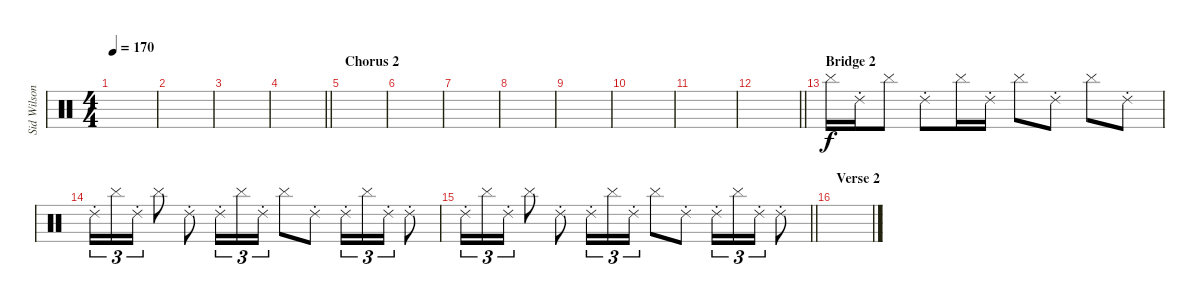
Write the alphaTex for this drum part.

\track ("Sid Wilson" "Sid Wilson") {instrument percussion}
\staff {score}
\articulation defaults
\ts (4 4)
\tempo 170
\clef neutral
\ks c
|
|
|
\barLineRight lightlight
|
\section ("" "Chorus 2")
|
|
|
|
|
|
|
\barLineRight lightlight
|
\section ("" "Bridge 2")
"Cymbal (hit)".16 "Ride (choke) 2".16 "Cymbal (hit)".8 "Ride (choke) 2".8 "Cymbal (hit)".16 "Ride (choke) 2".16 "Cymbal (hit)".8 "Ride (choke) 2".8 "Cymbal (hit)".8 "Ride (choke) 2".8 |
"Ride (choke) 2".16{tu (3 2)} "Cymbal (hit)".16{tu (3 2)} "Ride (choke) 2".16{tu (3 2)} "Cymbal (hit)".8 "Ride (choke) 2".8 "Ride (choke) 2".16{tu (3 2)} "Cymbal (hit)".16{tu (3 2)} "Ride (choke) 2".16{tu (3 2)} "Cymbal (hit)".8 "Ride (choke) 2".8 "Ride (choke) 2".16{tu (3 2)} "Cymbal (hit)".16{tu (3 2)} "Ride (choke) 2".16{tu (3 2)} "Ride (choke) 2".8 |
\barLineRight lightlight "Ride (choke) 2".16{tu (3 2)} "Cymbal (hit)".16{tu (3 2)} "Ride (choke) 2".16{tu (3 2)} "Cymbal (hit)".8 "Ride (choke) 2".8 "Ride (choke) 2".16{tu (3 2)} "Cymbal (hit)".16{tu (3 2)} "Ride (choke) 2".16{tu (3 2)} "Cymbal (hit)".8 "Ride (choke) 2".8 "Ride (choke) 2".16{tu (3 2)} "Cymbal (hit)".16{tu (3 2)} "Ride (choke) 2".16{tu (3 2)} "Ride (choke) 2".8
|
\section ("" "Verse 2")
